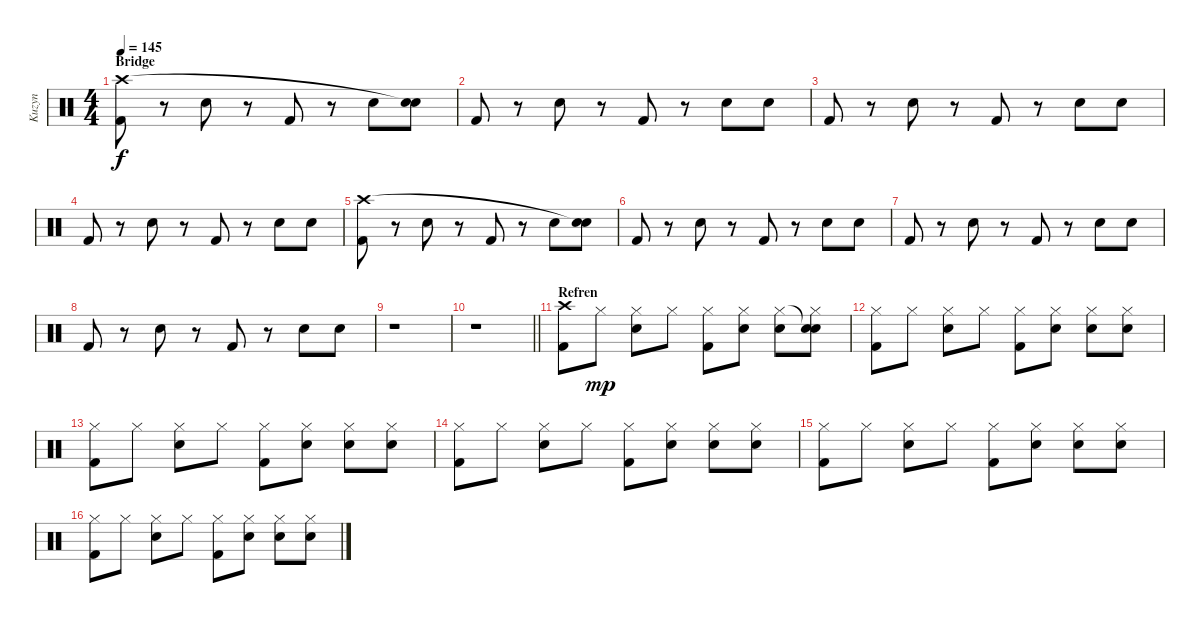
\track ("Kuzyn" "Kuzyn") {instrument percussion}
\staff {score}
\articulation defaults
\ts (4 4)
\section ("" "Bridge")
\tempo 145
\clef neutral
\ks c
("Kick (hit) 2" "Crash high (hit)").8{dy f} r.8 "Snare (hit) 2".8 r.8 "Kick (hit) 2".8 r.8 "Snare (hit) 2".8 ("Snare (hit) 2" "Snare (hit)"{t}).8 |
"Kick (hit) 2".8 r.8 "Snare (hit) 2".8 r.8 "Kick (hit) 2".8 r.8 "Snare (hit) 2".8 "Snare (hit) 2".8 |
"Kick (hit) 2".8 r.8 "Snare (hit) 2".8 r.8 "Kick (hit) 2".8 r.8 "Snare (hit) 2".8 "Snare (hit) 2".8 |
"Kick (hit) 2".8 r.8 "Snare (hit) 2".8 r.8 "Kick (hit) 2".8 r.8 "Snare (hit) 2".8 "Snare (hit) 2".8 |
("Kick (hit) 2" "Crash high (hit)").8 r.8 "Snare (hit) 2".8 r.8 "Kick (hit) 2".8 r.8 "Snare (hit) 2".8 ("Snare (hit) 2" "Snare (hit)"{t}).8 |
"Kick (hit) 2".8 r.8 "Snare (hit) 2".8 r.8 "Kick (hit) 2".8 r.8 "Snare (hit) 2".8 "Snare (hit) 2".8 |
"Kick (hit) 2".8 r.8 "Snare (hit) 2".8 r.8 "Kick (hit) 2".8 r.8 "Snare (hit) 2".8 "Snare (hit) 2".8 |
"Kick (hit) 2".8 r.8 "Snare (hit) 2".8 r.8 "Kick (hit) 2".8 r.8 "Snare (hit) 2".8 "Snare (hit) 2".8 |
r.1 |
\barLineRight lightlight
r.1 |
\section ("" "Refren")
("Kick (hit) 2" "Crash high (hit)").8 "Hi-Hat (closed)".8{dy mp} ("Snare (hit) 2" "Hi-Hat (closed)").8 "Hi-Hat (closed)".8 ("Kick (hit) 2" "Hi-Hat (closed)").8 ("Snare (hit) 2" "Hi-Hat (closed)").8 ("Snare (hit) 2" "Hi-Hat (closed)").8 ("Snare (hit) 2" "Snare (hit)"{t} "Hi-Hat (closed)").8 |
("Kick (hit) 2" "Hi-Hat (closed)").8 "Hi-Hat (closed)".8 ("Snare (hit) 2" "Hi-Hat (closed)").8 "Hi-Hat (closed)".8 ("Kick (hit) 2" "Hi-Hat (closed)").8 ("Snare (hit) 2" "Hi-Hat (closed)").8 ("Snare (hit) 2" "Hi-Hat (closed)").8 ("Snare (hit) 2" "Hi-Hat (closed)").8 |
("Kick (hit) 2" "Hi-Hat (closed)").8 "Hi-Hat (closed)".8 ("Snare (hit) 2" "Hi-Hat (closed)").8 "Hi-Hat (closed)".8 ("Kick (hit) 2" "Hi-Hat (closed)").8 ("Snare (hit) 2" "Hi-Hat (closed)").8 ("Snare (hit) 2" "Hi-Hat (closed)").8 ("Snare (hit) 2" "Hi-Hat (closed)").8 |
("Kick (hit) 2" "Hi-Hat (closed)").8 "Hi-Hat (closed)".8 ("Snare (hit) 2" "Hi-Hat (closed)").8 "Hi-Hat (closed)".8 ("Kick (hit) 2" "Hi-Hat (closed)").8 ("Snare (hit) 2" "Hi-Hat (closed)").8 ("Snare (hit) 2" "Hi-Hat (closed)").8 ("Snare (hit) 2" "Hi-Hat (closed)").8 |
("Kick (hit) 2" "Hi-Hat (closed)").8 "Hi-Hat (closed)".8 ("Snare (hit) 2" "Hi-Hat (closed)").8 "Hi-Hat (closed)".8 ("Kick (hit) 2" "Hi-Hat (closed)").8 ("Snare (hit) 2" "Hi-Hat (closed)").8 ("Snare (hit) 2" "Hi-Hat (closed)").8 ("Snare (hit) 2" "Hi-Hat (closed)").8 |
("Kick (hit) 2" "Hi-Hat (closed)").8 "Hi-Hat (closed)".8 ("Snare (hit) 2" "Hi-Hat (closed)").8 "Hi-Hat (closed)".8 ("Kick (hit) 2" "Hi-Hat (closed)").8 ("Snare (hit) 2" "Hi-Hat (closed)").8 ("Snare (hit) 2" "Hi-Hat (closed)").8 ("Snare (hit) 2" "Hi-Hat (closed)").8
